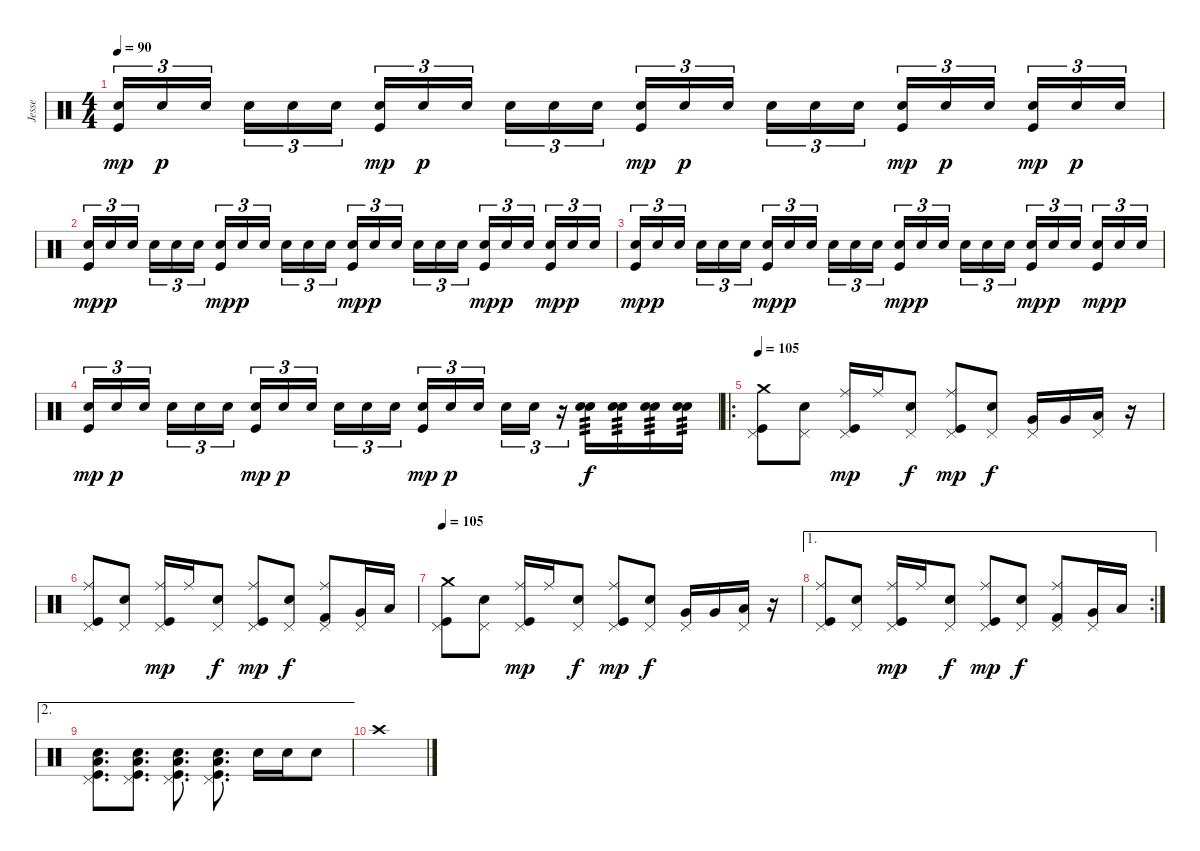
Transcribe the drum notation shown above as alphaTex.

\track ("Jesse" "Jesse") {instrument percussion}
\staff {score}
\articulation defaults
\ts (4 4)
\tempo 90
\clef neutral
\ks c
("Electric Snare (hit)" "Kick (hit)").16{tu (3 2) dy mp} "Electric Snare (hit)".16{tu (3 2) dy p} "Electric Snare (hit)".16{tu (3 2) beam splitsecondary} "Electric Snare (hit)".16{tu (3 2)} "Electric Snare (hit)".16{tu (3 2)} "Electric Snare (hit)".16{tu (3 2)} ("Electric Snare (hit)" "Kick (hit)").16{tu (3 2) dy mp} "Electric Snare (hit)".16{tu (3 2) dy p} "Electric Snare (hit)".16{tu (3 2) beam splitsecondary} "Electric Snare (hit)".16{tu (3 2)} "Electric Snare (hit)".16{tu (3 2)} "Electric Snare (hit)".16{tu (3 2)} ("Electric Snare (hit)" "Kick (hit)").16{tu (3 2) dy mp} "Electric Snare (hit)".16{tu (3 2) dy p} "Electric Snare (hit)".16{tu (3 2) beam splitsecondary} "Electric Snare (hit)".16{tu (3 2)} "Electric Snare (hit)".16{tu (3 2)} "Electric Snare (hit)".16{tu (3 2)} ("Electric Snare (hit)" "Kick (hit)").16{tu (3 2) dy mp} "Electric Snare (hit)".16{tu (3 2) dy p} "Electric Snare (hit)".16{tu (3 2) beam splitsecondary} ("Electric Snare (hit)" "Kick (hit)").16{tu (3 2) dy mp} "Electric Snare (hit)".16{tu (3 2) dy p} "Electric Snare (hit)".16{tu (3 2)} |
("Electric Snare (hit)" "Kick (hit)").16{tu (3 2) dy mp} "Electric Snare (hit)".16{tu (3 2) dy p} "Electric Snare (hit)".16{tu (3 2) beam splitsecondary} "Electric Snare (hit)".16{tu (3 2)} "Electric Snare (hit)".16{tu (3 2)} "Electric Snare (hit)".16{tu (3 2)} ("Electric Snare (hit)" "Kick (hit)").16{tu (3 2) dy mp} "Electric Snare (hit)".16{tu (3 2) dy p} "Electric Snare (hit)".16{tu (3 2) beam splitsecondary} "Electric Snare (hit)".16{tu (3 2)} "Electric Snare (hit)".16{tu (3 2)} "Electric Snare (hit)".16{tu (3 2)} ("Electric Snare (hit)" "Kick (hit)").16{tu (3 2) dy mp} "Electric Snare (hit)".16{tu (3 2) dy p} "Electric Snare (hit)".16{tu (3 2) beam splitsecondary} "Electric Snare (hit)".16{tu (3 2)} "Electric Snare (hit)".16{tu (3 2)} "Electric Snare (hit)".16{tu (3 2)} ("Electric Snare (hit)" "Kick (hit)").16{tu (3 2) dy mp} "Electric Snare (hit)".16{tu (3 2) dy p} "Electric Snare (hit)".16{tu (3 2) beam splitsecondary} ("Electric Snare (hit)" "Kick (hit)").16{tu (3 2) dy mp} "Electric Snare (hit)".16{tu (3 2) dy p} "Electric Snare (hit)".16{tu (3 2)} |
("Electric Snare (hit)" "Kick (hit)").16{tu (3 2) dy mp} "Electric Snare (hit)".16{tu (3 2) dy p} "Electric Snare (hit)".16{tu (3 2) beam splitsecondary} "Electric Snare (hit)".16{tu (3 2)} "Electric Snare (hit)".16{tu (3 2)} "Electric Snare (hit)".16{tu (3 2)} ("Electric Snare (hit)" "Kick (hit)").16{tu (3 2) dy mp} "Electric Snare (hit)".16{tu (3 2) dy p} "Electric Snare (hit)".16{tu (3 2) beam splitsecondary} "Electric Snare (hit)".16{tu (3 2)} "Electric Snare (hit)".16{tu (3 2)} "Electric Snare (hit)".16{tu (3 2)} ("Electric Snare (hit)" "Kick (hit)").16{tu (3 2) dy mp} "Electric Snare (hit)".16{tu (3 2) dy p} "Electric Snare (hit)".16{tu (3 2) beam splitsecondary} "Electric Snare (hit)".16{tu (3 2)} "Electric Snare (hit)".16{tu (3 2)} "Electric Snare (hit)".16{tu (3 2)} ("Electric Snare (hit)" "Kick (hit)").16{tu (3 2) dy mp} "Electric Snare (hit)".16{tu (3 2) dy p} "Electric Snare (hit)".16{tu (3 2) beam splitsecondary} ("Electric Snare (hit)" "Kick (hit)").16{tu (3 2) dy mp} "Electric Snare (hit)".16{tu (3 2) dy p} "Electric Snare (hit)".16{tu (3 2)} |
("Electric Snare (hit)" "Kick (hit)").16{tu (3 2) dy mp} "Electric Snare (hit)".16{tu (3 2) dy p} "Electric Snare (hit)".16{tu (3 2) beam splitsecondary} "Electric Snare (hit)".16{tu (3 2)} "Electric Snare (hit)".16{tu (3 2)} "Electric Snare (hit)".16{tu (3 2)} ("Electric Snare (hit)" "Kick (hit)").16{tu (3 2) dy mp} "Electric Snare (hit)".16{tu (3 2) dy p} "Electric Snare (hit)".16{tu (3 2) beam splitsecondary} "Electric Snare (hit)".16{tu (3 2)} "Electric Snare (hit)".16{tu (3 2)} "Electric Snare (hit)".16{tu (3 2)} ("Electric Snare (hit)" "Kick (hit)").16{tu (3 2) dy mp} "Electric Snare (hit)".16{tu (3 2) dy p} "Electric Snare (hit)".16{tu (3 2) beam splitsecondary} "Electric Snare (hit)".16{tu (3 2)} "Electric Snare (hit)".16{tu (3 2)} r.16{tu (3 2)} ("Electric Snare (hit)" "Electric Snare (hit)").16{tp 3 dy f} ("Electric Snare (hit)" "Electric Snare (hit)").16{tp 3} ("Electric Snare (hit)" "Electric Snare (hit)").16{tp 3} ("Electric Snare (hit)" "Electric Snare (hit)").16{tp 3} |
\ro
\tempo 105
("Pedal Hi-Hat (hit)" "Crash medium (hit)" "Kick (hit)").8 ("Pedal Hi-Hat (hit)" "Electric Snare (hit)").8 ("Pedal Hi-Hat (hit)" "Ride (middle)" "Kick (hit)").16{dy mp} "Ride (middle)".16 ("Pedal Hi-Hat (hit)" "Electric Snare (hit)").8{dy f} ("Pedal Hi-Hat (hit)" "Ride (middle)" "Kick (hit)").8{dy mp} ("Pedal Hi-Hat (hit)" "Electric Snare (hit)").8{dy f} ("Pedal Hi-Hat (hit)" "Very Low Tom (hit)").16 "Very Low Tom (hit)".16 ("Pedal Hi-Hat (hit)" "Low Tom (hit)").16 r.16 |
("Pedal Hi-Hat (hit)" "Ride (middle)" "Kick (hit)").8 ("Pedal Hi-Hat (hit)" "Electric Snare (hit)").8 ("Pedal Hi-Hat (hit)" "Ride (middle)" "Kick (hit)").16{dy mp} "Ride (middle)".16 ("Pedal Hi-Hat (hit)" "Electric Snare (hit)").8{dy f} ("Pedal Hi-Hat (hit)" "Ride (middle)" "Kick (hit)").8{dy mp} ("Pedal Hi-Hat (hit)" "Electric Snare (hit)").8{dy f} ("Pedal Hi-Hat (hit)" "Ride (middle)" "Kick (hit) 2").8 ("Pedal Hi-Hat (hit)" "Very Low Tom (hit)").16 "Low Tom (hit)".16 |
\tempo 105
("Pedal Hi-Hat (hit)" "Crash medium (hit)" "Kick (hit)").8 ("Pedal Hi-Hat (hit)" "Electric Snare (hit)").8 ("Pedal Hi-Hat (hit)" "Ride (middle)" "Kick (hit)").16{dy mp} "Ride (middle)".16 ("Pedal Hi-Hat (hit)" "Electric Snare (hit)").8{dy f} ("Pedal Hi-Hat (hit)" "Ride (middle)" "Kick (hit)").8{dy mp} ("Pedal Hi-Hat (hit)" "Electric Snare (hit)").8{dy f} ("Pedal Hi-Hat (hit)" "Very Low Tom (hit)").16 "Very Low Tom (hit)".16 ("Pedal Hi-Hat (hit)" "Low Tom (hit)").16 r.16 |
\ae 1
\rc 2
("Pedal Hi-Hat (hit)" "Ride (middle)" "Kick (hit)").8 ("Pedal Hi-Hat (hit)" "Electric Snare (hit)").8 ("Pedal Hi-Hat (hit)" "Ride (middle)" "Kick (hit)").16{dy mp} "Ride (middle)".16 ("Pedal Hi-Hat (hit)" "Electric Snare (hit)").8{dy f} ("Pedal Hi-Hat (hit)" "Ride (middle)" "Kick (hit)").8{dy mp} ("Pedal Hi-Hat (hit)" "Electric Snare (hit)").8{dy f} ("Pedal Hi-Hat (hit)" "Ride (middle)" "Kick (hit) 2").8 ("Pedal Hi-Hat (hit)" "Very Low Tom (hit)").16 "Low Tom (hit)".16 |
\ae 2
("Pedal Hi-Hat (hit)" "Electric Snare (hit)" "Low Floor Tom (hit)" "Kick (hit)").8{d} ("Pedal Hi-Hat (hit)" "Electric Snare (hit)" "Low Floor Tom (hit)" "Kick (hit)").8{d} ("Pedal Hi-Hat (hit)" "Electric Snare (hit)" "Low Floor Tom (hit)" "Kick (hit)").8{d} ("Pedal Hi-Hat (hit)" "Electric Snare (hit)" "Low Floor Tom (hit)" "Kick (hit)").8{d} "Electric Snare (hit)".16 "Electric Snare (hit)".16 "Electric Snare (hit)".8 |
"Crash high (hit)".1
